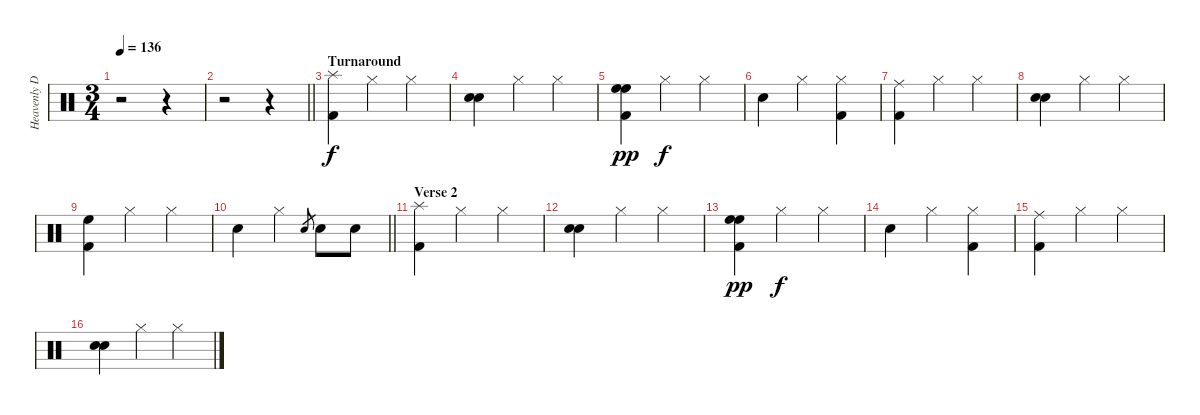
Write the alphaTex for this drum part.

\track ("Heavenly Drums" "Heavenly D") {instrument percussion}
\staff {score}
\articulation defaults
\ts (3 4)
\tempo 136
\clef neutral
\ks c
r.2{dy f} r.4 |
\barLineRight lightlight
r.2 r.4 |
\section ("" "Turnaround")
("Splash (hit)" "Kick (hit) 2").4 "Hi-Hat (closed)".4 "Hi-Hat (closed)".4 |
("Electric Snare (hit)" "Electric Snare (hit)").4 "Hi-Hat (closed)".4 "Hi-Hat (closed)".4 |
("High Floor Tom (hit)" "High Floor Tom (hit)" "Kick (hit) 2").4{dy pp} "Hi-Hat (closed)".4{dy f} "Hi-Hat (closed)".4 |
"Snare (hit) 2".4 "Hi-Hat (closed)".4 ("Hi-Hat (closed)" "Kick (hit) 2").4 |
("Ride (middle)" "Kick (hit) 2").4 "Hi-Hat (closed)".4 "Hi-Hat (closed)".4 |
("Electric Snare (hit)" "Electric Snare (hit)").4 "Hi-Hat (closed)".4 "Hi-Hat (closed)".4 |
("High Floor Tom (hit)" "Kick (hit) 2").4 "Hi-Hat (closed)".4 "Hi-Hat (closed)".4 |
\barLineRight lightlight "Snare (hit) 2".4 "Hi-Hat (closed)".4 "Snare (hit) 2".8{gr} "Snare (hit) 2".8 "Snare (hit) 2".8
|
\section ("" "Verse 2")
("Splash (hit)" "Kick (hit) 2").4 "Hi-Hat (closed)".4 "Hi-Hat (closed)".4 |
("Electric Snare (hit)" "Electric Snare (hit)").4 "Hi-Hat (closed)".4 "Hi-Hat (closed)".4 |
("High Floor Tom (hit)" "High Floor Tom (hit)" "Kick (hit) 2").4{dy pp} "Hi-Hat (closed)".4{dy f} "Hi-Hat (closed)".4 |
"Snare (hit) 2".4 "Hi-Hat (closed)".4 ("Hi-Hat (closed)" "Kick (hit) 2").4 |
("Ride (middle)" "Kick (hit) 2").4 "Hi-Hat (closed)".4 "Hi-Hat (closed)".4 |
("Electric Snare (hit)" "Electric Snare (hit)").4 "Hi-Hat (closed)".4 "Hi-Hat (closed)".4
